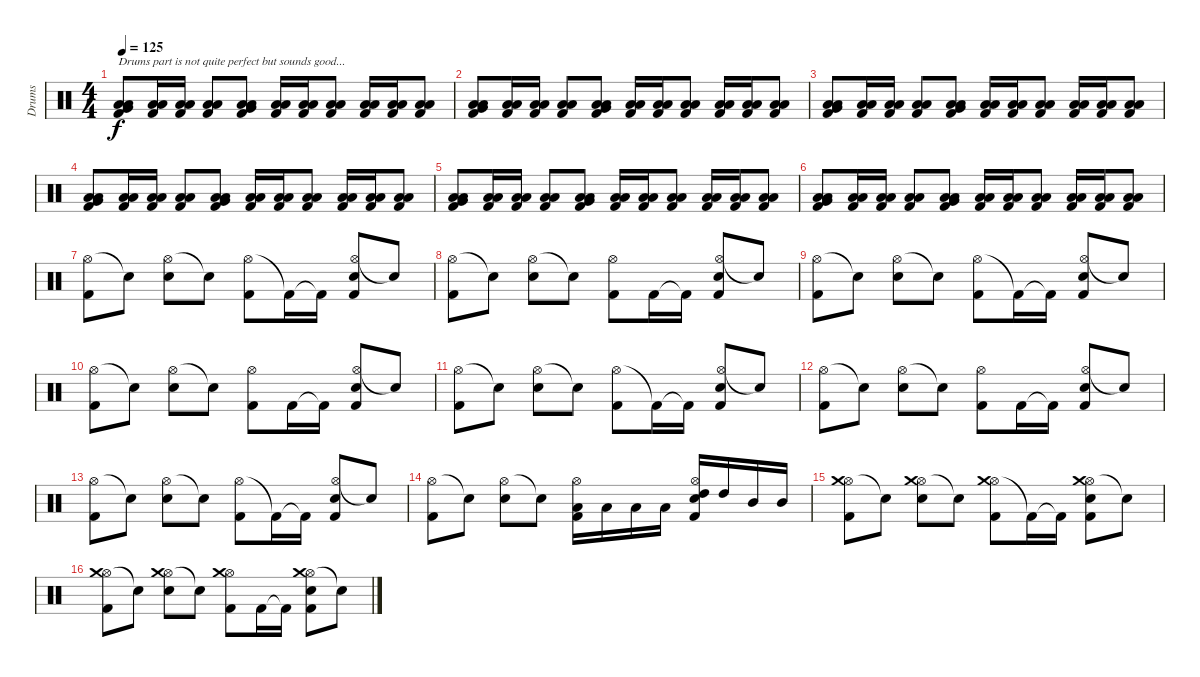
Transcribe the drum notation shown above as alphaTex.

\track ("Drums" "Drums") {instrument percussion}
\staff {score}
\articulation defaults
\ts (4 4)
\tempo 125
\clef neutral
\ks c
("Low Floor Tom (hit)" "Low Tom (hit)" "Very Low Tom (hit)" "Kick (hit) 2").8{txt "Drums part is not quite perfect but sounds good..." dy f} ("Low Floor Tom (hit)" "Low Tom (hit)" "Kick (hit) 2").16 ("Low Floor Tom (hit)" "Low Tom (hit)" "Kick (hit) 2").16 ("Low Floor Tom (hit)" "Low Tom (hit)" "Kick (hit) 2").8 ("Low Floor Tom (hit)" "Low Tom (hit)" "Very Low Tom (hit)" "Kick (hit) 2").8 ("Low Floor Tom (hit)" "Low Tom (hit)" "Kick (hit) 2").16 ("Low Floor Tom (hit)" "Low Tom (hit)" "Kick (hit) 2").16 ("Low Floor Tom (hit)" "Low Tom (hit)" "Kick (hit) 2").8 ("Low Floor Tom (hit)" "Low Tom (hit)" "Kick (hit) 2").16 ("Low Floor Tom (hit)" "Low Tom (hit)" "Kick (hit) 2").16 ("Low Floor Tom (hit)" "Low Tom (hit)" "Kick (hit) 2").8 |
("Low Floor Tom (hit)" "Low Tom (hit)" "Very Low Tom (hit)" "Kick (hit) 2").8 ("Low Floor Tom (hit)" "Low Tom (hit)" "Kick (hit) 2").16 ("Low Floor Tom (hit)" "Low Tom (hit)" "Kick (hit) 2").16 ("Low Floor Tom (hit)" "Low Tom (hit)" "Kick (hit) 2").8 ("Low Floor Tom (hit)" "Low Tom (hit)" "Very Low Tom (hit)" "Kick (hit) 2").8 ("Low Floor Tom (hit)" "Low Tom (hit)" "Kick (hit) 2").16 ("Low Floor Tom (hit)" "Low Tom (hit)" "Kick (hit) 2").16 ("Low Floor Tom (hit)" "Low Tom (hit)" "Kick (hit) 2").8 ("Low Floor Tom (hit)" "Low Tom (hit)" "Kick (hit) 2").16 ("Low Floor Tom (hit)" "Low Tom (hit)" "Kick (hit) 2").16 ("Low Floor Tom (hit)" "Low Tom (hit)" "Kick (hit) 2").8 |
("Low Floor Tom (hit)" "Low Tom (hit)" "Very Low Tom (hit)" "Kick (hit) 2").8 ("Low Floor Tom (hit)" "Low Tom (hit)" "Kick (hit) 2").16 ("Low Floor Tom (hit)" "Low Tom (hit)" "Kick (hit) 2").16 ("Low Floor Tom (hit)" "Low Tom (hit)" "Kick (hit) 2").8 ("Low Floor Tom (hit)" "Low Tom (hit)" "Very Low Tom (hit)" "Kick (hit) 2").8 ("Low Floor Tom (hit)" "Low Tom (hit)" "Kick (hit) 2").16 ("Low Floor Tom (hit)" "Low Tom (hit)" "Kick (hit) 2").16 ("Low Floor Tom (hit)" "Low Tom (hit)" "Kick (hit) 2").8 ("Low Floor Tom (hit)" "Low Tom (hit)" "Kick (hit) 2").16 ("Low Floor Tom (hit)" "Low Tom (hit)" "Kick (hit) 2").16 ("Low Floor Tom (hit)" "Low Tom (hit)" "Kick (hit) 2").8 |
("Low Floor Tom (hit)" "Low Tom (hit)" "Very Low Tom (hit)" "Kick (hit) 2").8 ("Low Floor Tom (hit)" "Low Tom (hit)" "Kick (hit) 2").16 ("Low Floor Tom (hit)" "Low Tom (hit)" "Kick (hit) 2").16 ("Low Floor Tom (hit)" "Low Tom (hit)" "Kick (hit) 2").8 ("Low Floor Tom (hit)" "Low Tom (hit)" "Very Low Tom (hit)" "Kick (hit) 2").8 ("Low Floor Tom (hit)" "Low Tom (hit)" "Kick (hit) 2").16 ("Low Floor Tom (hit)" "Low Tom (hit)" "Kick (hit) 2").16 ("Low Floor Tom (hit)" "Low Tom (hit)" "Kick (hit) 2").8 ("Low Floor Tom (hit)" "Low Tom (hit)" "Kick (hit) 2").16 ("Low Floor Tom (hit)" "Low Tom (hit)" "Kick (hit) 2").16 ("Low Floor Tom (hit)" "Low Tom (hit)" "Kick (hit) 2").8 |
("Low Floor Tom (hit)" "Low Tom (hit)" "Very Low Tom (hit)" "Kick (hit) 2").8 ("Low Floor Tom (hit)" "Low Tom (hit)" "Kick (hit) 2").16 ("Low Floor Tom (hit)" "Low Tom (hit)" "Kick (hit) 2").16 ("Low Floor Tom (hit)" "Low Tom (hit)" "Kick (hit) 2").8 ("Low Floor Tom (hit)" "Low Tom (hit)" "Very Low Tom (hit)" "Kick (hit) 2").8 ("Low Floor Tom (hit)" "Low Tom (hit)" "Kick (hit) 2").16 ("Low Floor Tom (hit)" "Low Tom (hit)" "Kick (hit) 2").16 ("Low Floor Tom (hit)" "Low Tom (hit)" "Kick (hit) 2").8 ("Low Floor Tom (hit)" "Low Tom (hit)" "Kick (hit) 2").16 ("Low Floor Tom (hit)" "Low Tom (hit)" "Kick (hit) 2").16 ("Low Floor Tom (hit)" "Low Tom (hit)" "Kick (hit) 2").8 |
("Low Floor Tom (hit)" "Low Tom (hit)" "Very Low Tom (hit)" "Kick (hit) 2").8 ("Low Floor Tom (hit)" "Low Tom (hit)" "Kick (hit) 2").16 ("Low Floor Tom (hit)" "Low Tom (hit)" "Kick (hit) 2").16 ("Low Floor Tom (hit)" "Low Tom (hit)" "Kick (hit) 2").8 ("Low Floor Tom (hit)" "Low Tom (hit)" "Very Low Tom (hit)" "Kick (hit) 2").8 ("Low Floor Tom (hit)" "Low Tom (hit)" "Kick (hit) 2").16 ("Low Floor Tom (hit)" "Low Tom (hit)" "Kick (hit) 2").16 ("Low Floor Tom (hit)" "Low Tom (hit)" "Kick (hit) 2").8 ("Low Floor Tom (hit)" "Low Tom (hit)" "Kick (hit) 2").16 ("Low Floor Tom (hit)" "Low Tom (hit)" "Kick (hit) 2").16 ("Low Floor Tom (hit)" "Low Tom (hit)" "Kick (hit) 2").8 |
("Hi-Hat (open)" "Kick (hit) 2").8 "Snare (hit)"{t}.8 ("Hi-Hat (open)" "Snare (hit) 2").8 "Snare (hit)"{t}.8 ("Hi-Hat (open)" "Kick (hit) 2").8 "Kick (hit) 2"{t}.16 "Kick (hit) 2"{t}.16 ("Hi-Hat (open)" "Snare (hit) 2" "Kick (hit) 2").8 "Snare (hit)"{t}.8 |
("Hi-Hat (open)" "Kick (hit) 2").8 "Snare (hit)"{t}.8 ("Hi-Hat (open)" "Snare (hit) 2").8 "Snare (hit)"{t}.8 ("Hi-Hat (open)" "Kick (hit) 2").8 "Kick (hit) 2".16 "Kick (hit) 2"{t}.16 ("Hi-Hat (open)" "Snare (hit) 2" "Kick (hit) 2").8 "Snare (hit)"{t}.8 |
("Hi-Hat (open)" "Kick (hit) 2").8 "Snare (hit)"{t}.8 ("Hi-Hat (open)" "Snare (hit) 2").8 "Snare (hit)"{t}.8 ("Hi-Hat (open)" "Kick (hit) 2").8 "Kick (hit) 2"{t}.16 "Kick (hit) 2"{t}.16 ("Hi-Hat (open)" "Snare (hit) 2" "Kick (hit) 2").8 "Snare (hit)"{t}.8 |
("Hi-Hat (open)" "Kick (hit) 2").8 "Snare (hit)"{t}.8 ("Hi-Hat (open)" "Snare (hit) 2").8 "Snare (hit)"{t}.8 ("Hi-Hat (open)" "Kick (hit) 2").8 "Kick (hit) 2".16 "Kick (hit) 2"{t}.16 ("Hi-Hat (open)" "Snare (hit) 2" "Kick (hit) 2").8 "Snare (hit)"{t}.8 |
("Hi-Hat (open)" "Kick (hit) 2").8 "Snare (hit)"{t}.8 ("Hi-Hat (open)" "Snare (hit) 2").8 "Snare (hit)"{t}.8 ("Hi-Hat (open)" "Kick (hit) 2").8 "Kick (hit) 2"{t}.16 "Kick (hit) 2"{t}.16 ("Hi-Hat (open)" "Snare (hit) 2" "Kick (hit) 2").8 "Snare (hit)"{t}.8 |
("Hi-Hat (open)" "Kick (hit) 2").8 "Snare (hit)"{t}.8 ("Hi-Hat (open)" "Snare (hit) 2").8 "Snare (hit)"{t}.8 ("Hi-Hat (open)" "Kick (hit) 2").8 "Kick (hit) 2".16 "Kick (hit) 2"{t}.16 ("Hi-Hat (open)" "Snare (hit) 2" "Kick (hit) 2").8 "Snare (hit)"{t}.8 |
("Hi-Hat (open)" "Kick (hit) 2").8 "Snare (hit)"{t}.8 ("Hi-Hat (open)" "Snare (hit) 2").8 "Snare (hit)"{t}.8 ("Hi-Hat (open)" "Kick (hit) 2").8 "Kick (hit) 2"{t}.16 "Kick (hit) 2"{t}.16 ("Hi-Hat (open)" "Snare (hit) 2" "Kick (hit) 2").8 "Snare (hit)"{t}.8 |
("Hi-Hat (open)" "Kick (hit) 2").8 "Snare (hit)"{t}.8 ("Hi-Hat (open)" "Snare (hit) 2").8 "Snare (hit)"{t}.8 ("Hi-Hat (open)" "Kick (hit) 2" "Low Floor Tom (hit)").16 "Low Floor Tom (hit)".16 "Low Tom (hit)".16 "Low Tom (hit)".16 ("Hi-Hat (open)" "Kick (hit) 2" "Snare (hit) 2" "High Tom (hit)").16 "High Tom (hit)".16 "Mid Tom (hit)".16 "Mid Tom (hit)".16 |
("Hi-Hat (open)" "Crash medium (hit)" "Kick (hit) 2").8 "Snare (hit)"{t}.8 ("Hi-Hat (open)" "Crash medium (hit)" "Snare (hit) 2").8 "Snare (hit)"{t}.8 ("Hi-Hat (open)" "Crash medium (hit)" "Kick (hit) 2").8 "Kick (hit) 2"{t}.16 "Kick (hit) 2"{t}.16 ("Hi-Hat (open)" "Crash medium (hit)" "Snare (hit) 2" "Kick (hit) 2").8 "Snare (hit)"{t}.8 |
("Hi-Hat (open)" "Crash medium (hit)" "Kick (hit) 2").8 "Snare (hit)"{t}.8 ("Hi-Hat (open)" "Crash medium (hit)" "Snare (hit) 2").8 "Snare (hit)"{t}.8 ("Hi-Hat (open)" "Crash medium (hit)" "Kick (hit) 2").8 "Kick (hit) 2".16 "Kick (hit) 2"{t}.16 ("Hi-Hat (open)" "Crash medium (hit)" "Snare (hit) 2" "Kick (hit) 2").8 "Snare (hit)"{t}.8
